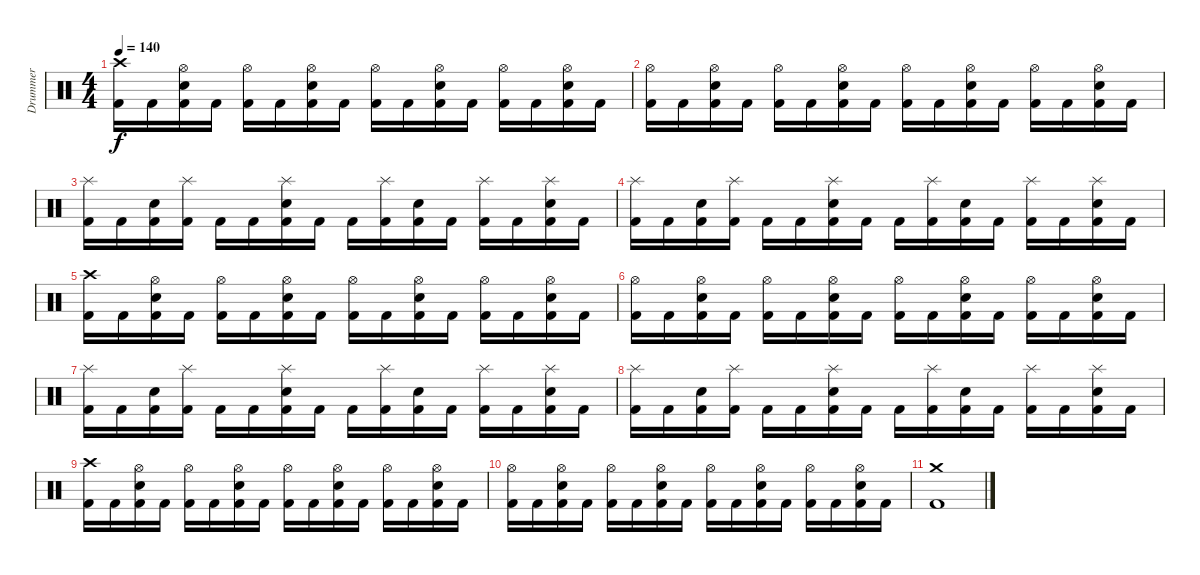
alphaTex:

\track ("Drummer" "Drummer") {instrument percussion}
\staff {score}
\articulation defaults
\ts (4 4)
\tempo 140
\clef neutral
\ks c
("Crash high (hit)" "Kick (hit) 2").16{dy f} "Kick (hit) 2".16 ("Hi-Hat (open)" "Electric Snare (hit)" "Kick (hit) 2").16 "Kick (hit) 2".16 ("Hi-Hat (open)" "Kick (hit) 2").16 "Kick (hit) 2".16 ("Hi-Hat (open)" "Electric Snare (hit)" "Kick (hit) 2").16 "Kick (hit) 2".16 ("Hi-Hat (open)" "Kick (hit) 2").16 "Kick (hit) 2".16 ("Hi-Hat (open)" "Electric Snare (hit)" "Kick (hit) 2").16 "Kick (hit) 2".16 ("Hi-Hat (open)" "Kick (hit) 2").16 "Kick (hit) 2".16 ("Hi-Hat (open)" "Electric Snare (hit)" "Kick (hit) 2").16 "Kick (hit) 2".16 |
("Hi-Hat (open)" "Kick (hit) 2").16 "Kick (hit) 2".16 ("Hi-Hat (open)" "Electric Snare (hit)" "Kick (hit) 2").16 "Kick (hit) 2".16 ("Hi-Hat (open)" "Kick (hit) 2").16 "Kick (hit) 2".16 ("Hi-Hat (open)" "Electric Snare (hit)" "Kick (hit) 2").16 "Kick (hit) 2".16 ("Hi-Hat (open)" "Kick (hit) 2").16 "Kick (hit) 2".16 ("Hi-Hat (open)" "Electric Snare (hit)" "Kick (hit) 2").16 "Kick (hit) 2".16 ("Hi-Hat (open)" "Kick (hit) 2").16 "Kick (hit) 2".16 ("Hi-Hat (open)" "Electric Snare (hit)" "Kick (hit) 2").16 "Kick (hit) 2".16 |
("Splash (hit)" "Kick (hit) 2").16 "Kick (hit) 2".16 ("Electric Snare (hit)" "Kick (hit) 2").16 ("Splash (hit)" "Kick (hit) 2").16 "Kick (hit) 2".16 "Kick (hit) 2".16 ("Splash (hit)" "Electric Snare (hit)" "Kick (hit) 2").16 "Kick (hit) 2".16 "Kick (hit) 2".16 ("Splash (hit)" "Kick (hit) 2").16 ("Electric Snare (hit)" "Kick (hit) 2").16 "Kick (hit) 2".16 ("Splash (hit)" "Kick (hit) 2").16 "Kick (hit) 2".16 ("Splash (hit)" "Electric Snare (hit)" "Kick (hit) 2").16 "Kick (hit) 2".16 |
("Splash (hit)" "Kick (hit) 2").16 "Kick (hit) 2".16 ("Electric Snare (hit)" "Kick (hit) 2").16 ("Splash (hit)" "Kick (hit) 2").16 "Kick (hit) 2".16 "Kick (hit) 2".16 ("Splash (hit)" "Electric Snare (hit)" "Kick (hit) 2").16 "Kick (hit) 2".16 "Kick (hit) 2".16 ("Splash (hit)" "Kick (hit) 2").16 ("Electric Snare (hit)" "Kick (hit) 2").16 "Kick (hit) 2".16 ("Splash (hit)" "Kick (hit) 2").16 "Kick (hit) 2".16 ("Splash (hit)" "Electric Snare (hit)" "Kick (hit) 2").16 "Kick (hit) 2".16 |
("Crash high (hit)" "Kick (hit) 2").16 "Kick (hit) 2".16 ("Hi-Hat (open)" "Electric Snare (hit)" "Kick (hit) 2").16 "Kick (hit) 2".16 ("Hi-Hat (open)" "Kick (hit) 2").16 "Kick (hit) 2".16 ("Hi-Hat (open)" "Electric Snare (hit)" "Kick (hit) 2").16 "Kick (hit) 2".16 ("Hi-Hat (open)" "Kick (hit) 2").16 "Kick (hit) 2".16 ("Hi-Hat (open)" "Electric Snare (hit)" "Kick (hit) 2").16 "Kick (hit) 2".16 ("Hi-Hat (open)" "Kick (hit) 2").16 "Kick (hit) 2".16 ("Hi-Hat (open)" "Electric Snare (hit)" "Kick (hit) 2").16 "Kick (hit) 2".16 |
("Hi-Hat (open)" "Kick (hit) 2").16 "Kick (hit) 2".16 ("Hi-Hat (open)" "Electric Snare (hit)" "Kick (hit) 2").16 "Kick (hit) 2".16 ("Hi-Hat (open)" "Kick (hit) 2").16 "Kick (hit) 2".16 ("Hi-Hat (open)" "Electric Snare (hit)" "Kick (hit) 2").16 "Kick (hit) 2".16 ("Hi-Hat (open)" "Kick (hit) 2").16 "Kick (hit) 2".16 ("Hi-Hat (open)" "Electric Snare (hit)" "Kick (hit) 2").16 "Kick (hit) 2".16 ("Hi-Hat (open)" "Kick (hit) 2").16 "Kick (hit) 2".16 ("Hi-Hat (open)" "Electric Snare (hit)" "Kick (hit) 2").16 "Kick (hit) 2".16 |
("Splash (hit)" "Kick (hit) 2").16 "Kick (hit) 2".16 ("Electric Snare (hit)" "Kick (hit) 2").16 ("Splash (hit)" "Kick (hit) 2").16 "Kick (hit) 2".16 "Kick (hit) 2".16 ("Splash (hit)" "Electric Snare (hit)" "Kick (hit) 2").16 "Kick (hit) 2".16 "Kick (hit) 2".16 ("Splash (hit)" "Kick (hit) 2").16 ("Electric Snare (hit)" "Kick (hit) 2").16 "Kick (hit) 2".16 ("Splash (hit)" "Kick (hit) 2").16 "Kick (hit) 2".16 ("Splash (hit)" "Electric Snare (hit)" "Kick (hit) 2").16 "Kick (hit) 2".16 |
("Splash (hit)" "Kick (hit) 2").16 "Kick (hit) 2".16 ("Electric Snare (hit)" "Kick (hit) 2").16 ("Splash (hit)" "Kick (hit) 2").16 "Kick (hit) 2".16 "Kick (hit) 2".16 ("Splash (hit)" "Electric Snare (hit)" "Kick (hit) 2").16 "Kick (hit) 2".16 "Kick (hit) 2".16 ("Splash (hit)" "Kick (hit) 2").16 ("Electric Snare (hit)" "Kick (hit) 2").16 "Kick (hit) 2".16 ("Splash (hit)" "Kick (hit) 2").16 "Kick (hit) 2".16 ("Splash (hit)" "Electric Snare (hit)" "Kick (hit) 2").16 "Kick (hit) 2".16 |
("Crash high (hit)" "Kick (hit) 2").16 "Kick (hit) 2".16 ("Hi-Hat (open)" "Electric Snare (hit)" "Kick (hit) 2").16 "Kick (hit) 2".16 ("Hi-Hat (open)" "Kick (hit) 2").16 "Kick (hit) 2".16 ("Hi-Hat (open)" "Electric Snare (hit)" "Kick (hit) 2").16 "Kick (hit) 2".16 ("Hi-Hat (open)" "Kick (hit) 2").16 "Kick (hit) 2".16 ("Hi-Hat (open)" "Electric Snare (hit)" "Kick (hit) 2").16 "Kick (hit) 2".16 ("Hi-Hat (open)" "Kick (hit) 2").16 "Kick (hit) 2".16 ("Hi-Hat (open)" "Electric Snare (hit)" "Kick (hit) 2").16 "Kick (hit) 2".16 |
("Hi-Hat (open)" "Kick (hit) 2").16 "Kick (hit) 2".16 ("Hi-Hat (open)" "Electric Snare (hit)" "Kick (hit) 2").16 "Kick (hit) 2".16 ("Hi-Hat (open)" "Kick (hit) 2").16 "Kick (hit) 2".16 ("Hi-Hat (open)" "Electric Snare (hit)" "Kick (hit) 2").16 "Kick (hit) 2".16 ("Hi-Hat (open)" "Kick (hit) 2").16 "Kick (hit) 2".16 ("Hi-Hat (open)" "Electric Snare (hit)" "Kick (hit) 2").16 "Kick (hit) 2".16 ("Hi-Hat (open)" "Kick (hit) 2").16 "Kick (hit) 2".16 ("Hi-Hat (open)" "Electric Snare (hit)" "Kick (hit) 2").16 "Kick (hit) 2".16 |
("Crash medium (hit)" "Kick (hit) 2").1
